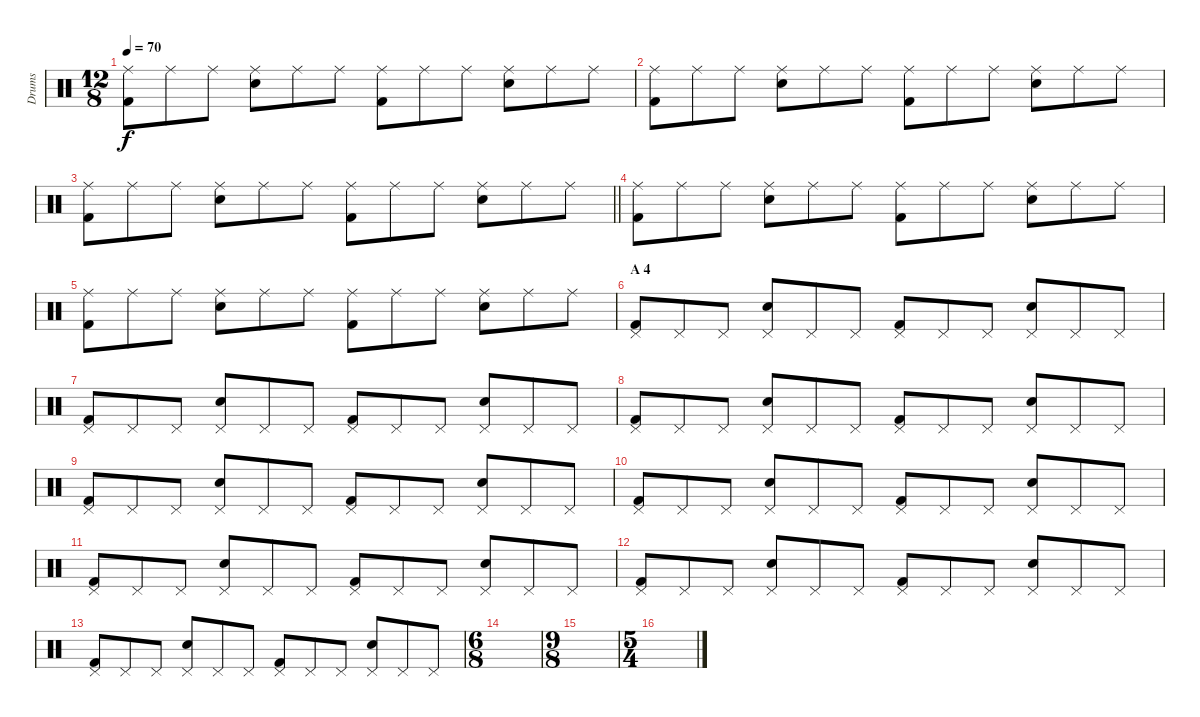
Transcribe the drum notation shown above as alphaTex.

\track ("Drums" "Drums") {instrument percussion}
\staff {score}
\articulation defaults
\ts (12 8)
\tempo 70
\clef neutral
\ks c
("Ride (middle)" "Kick (hit) 2").8{dy f} "Ride (middle)".8 "Ride (middle)".8 ("Ride (middle)" "Electric Snare (hit)").8 "Ride (middle)".8 "Ride (middle)".8 ("Ride (middle)" "Kick (hit) 2").8 "Ride (middle)".8 "Ride (middle)".8 ("Ride (middle)" "Electric Snare (hit)").8 "Ride (middle)".8 "Ride (middle)".8 |
("Ride (middle)" "Kick (hit) 2").8 "Ride (middle)".8 "Ride (middle)".8 ("Ride (middle)" "Electric Snare (hit)").8 "Ride (middle)".8 "Ride (middle)".8 ("Ride (middle)" "Kick (hit) 2").8 "Ride (middle)".8 "Ride (middle)".8 ("Ride (middle)" "Electric Snare (hit)").8 "Ride (middle)".8 "Ride (middle)".8 |
\barLineRight lightlight
("Ride (middle)" "Kick (hit) 2").8 "Ride (middle)".8 "Ride (middle)".8 ("Ride (middle)" "Electric Snare (hit)").8 "Ride (middle)".8 "Ride (middle)".8 ("Ride (middle)" "Kick (hit) 2").8 "Ride (middle)".8 "Ride (middle)".8 ("Ride (middle)" "Electric Snare (hit)").8 "Ride (middle)".8 "Ride (middle)".8 |
("Ride (middle)" "Kick (hit) 2").8 "Ride (middle)".8 "Ride (middle)".8 ("Ride (middle)" "Electric Snare (hit)").8 "Ride (middle)".8 "Ride (middle)".8 ("Ride (middle)" "Kick (hit) 2").8 "Ride (middle)".8 "Ride (middle)".8 ("Ride (middle)" "Electric Snare (hit)").8 "Ride (middle)".8 "Ride (middle)".8 |
("Ride (middle)" "Kick (hit) 2").8 "Ride (middle)".8 "Ride (middle)".8 ("Ride (middle)" "Electric Snare (hit)").8 "Ride (middle)".8 "Ride (middle)".8 ("Ride (middle)" "Kick (hit) 2").8 "Ride (middle)".8 "Ride (middle)".8 ("Ride (middle)" "Electric Snare (hit)").8 "Ride (middle)".8 "Ride (middle)".8 |
\section ("" "A 4")
("Pedal Hi-Hat (hit)" "Kick (hit) 2").8 "Pedal Hi-Hat (hit)".8 "Pedal Hi-Hat (hit)".8 ("Pedal Hi-Hat (hit)" "Electric Snare (hit)").8 "Pedal Hi-Hat (hit)".8 "Pedal Hi-Hat (hit)".8 ("Pedal Hi-Hat (hit)" "Kick (hit) 2").8 "Pedal Hi-Hat (hit)".8 "Pedal Hi-Hat (hit)".8 ("Pedal Hi-Hat (hit)" "Electric Snare (hit)").8 "Pedal Hi-Hat (hit)".8 "Pedal Hi-Hat (hit)".8 |
("Pedal Hi-Hat (hit)" "Kick (hit) 2").8 "Pedal Hi-Hat (hit)".8 "Pedal Hi-Hat (hit)".8 ("Pedal Hi-Hat (hit)" "Electric Snare (hit)").8 "Pedal Hi-Hat (hit)".8 "Pedal Hi-Hat (hit)".8 ("Pedal Hi-Hat (hit)" "Kick (hit) 2").8 "Pedal Hi-Hat (hit)".8 "Pedal Hi-Hat (hit)".8 ("Pedal Hi-Hat (hit)" "Electric Snare (hit)").8 "Pedal Hi-Hat (hit)".8 "Pedal Hi-Hat (hit)".8 |
("Pedal Hi-Hat (hit)" "Kick (hit) 2").8 "Pedal Hi-Hat (hit)".8 "Pedal Hi-Hat (hit)".8 ("Pedal Hi-Hat (hit)" "Electric Snare (hit)").8 "Pedal Hi-Hat (hit)".8 "Pedal Hi-Hat (hit)".8 ("Pedal Hi-Hat (hit)" "Kick (hit) 2").8 "Pedal Hi-Hat (hit)".8 "Pedal Hi-Hat (hit)".8 ("Pedal Hi-Hat (hit)" "Electric Snare (hit)").8 "Pedal Hi-Hat (hit)".8 "Pedal Hi-Hat (hit)".8 |
("Pedal Hi-Hat (hit)" "Kick (hit) 2").8 "Pedal Hi-Hat (hit)".8 "Pedal Hi-Hat (hit)".8 ("Pedal Hi-Hat (hit)" "Electric Snare (hit)").8 "Pedal Hi-Hat (hit)".8 "Pedal Hi-Hat (hit)".8 ("Pedal Hi-Hat (hit)" "Kick (hit) 2").8 "Pedal Hi-Hat (hit)".8 "Pedal Hi-Hat (hit)".8 ("Pedal Hi-Hat (hit)" "Electric Snare (hit)").8 "Pedal Hi-Hat (hit)".8 "Pedal Hi-Hat (hit)".8 |
("Pedal Hi-Hat (hit)" "Kick (hit) 2").8 "Pedal Hi-Hat (hit)".8 "Pedal Hi-Hat (hit)".8 ("Pedal Hi-Hat (hit)" "Electric Snare (hit)").8 "Pedal Hi-Hat (hit)".8 "Pedal Hi-Hat (hit)".8 ("Pedal Hi-Hat (hit)" "Kick (hit) 2").8 "Pedal Hi-Hat (hit)".8 "Pedal Hi-Hat (hit)".8 ("Pedal Hi-Hat (hit)" "Electric Snare (hit)").8 "Pedal Hi-Hat (hit)".8 "Pedal Hi-Hat (hit)".8 |
("Pedal Hi-Hat (hit)" "Kick (hit) 2").8 "Pedal Hi-Hat (hit)".8 "Pedal Hi-Hat (hit)".8 ("Pedal Hi-Hat (hit)" "Electric Snare (hit)").8 "Pedal Hi-Hat (hit)".8 "Pedal Hi-Hat (hit)".8 ("Pedal Hi-Hat (hit)" "Kick (hit) 2").8 "Pedal Hi-Hat (hit)".8 "Pedal Hi-Hat (hit)".8 ("Pedal Hi-Hat (hit)" "Electric Snare (hit)").8 "Pedal Hi-Hat (hit)".8 "Pedal Hi-Hat (hit)".8 |
("Pedal Hi-Hat (hit)" "Kick (hit) 2").8 "Pedal Hi-Hat (hit)".8 "Pedal Hi-Hat (hit)".8 ("Pedal Hi-Hat (hit)" "Electric Snare (hit)").8 "Pedal Hi-Hat (hit)".8 "Pedal Hi-Hat (hit)".8 ("Pedal Hi-Hat (hit)" "Kick (hit) 2").8 "Pedal Hi-Hat (hit)".8 "Pedal Hi-Hat (hit)".8 ("Pedal Hi-Hat (hit)" "Electric Snare (hit)").8 "Pedal Hi-Hat (hit)".8 "Pedal Hi-Hat (hit)".8 |
("Pedal Hi-Hat (hit)" "Kick (hit) 2").8 "Pedal Hi-Hat (hit)".8 "Pedal Hi-Hat (hit)".8 ("Pedal Hi-Hat (hit)" "Electric Snare (hit)").8 "Pedal Hi-Hat (hit)".8 "Pedal Hi-Hat (hit)".8 ("Pedal Hi-Hat (hit)" "Kick (hit) 2").8 "Pedal Hi-Hat (hit)".8 "Pedal Hi-Hat (hit)".8 ("Pedal Hi-Hat (hit)" "Electric Snare (hit)").8 "Pedal Hi-Hat (hit)".8 "Pedal Hi-Hat (hit)".8 |
\ts (6 8)
|
\ts (9 8)
|
\ts (5 4)
